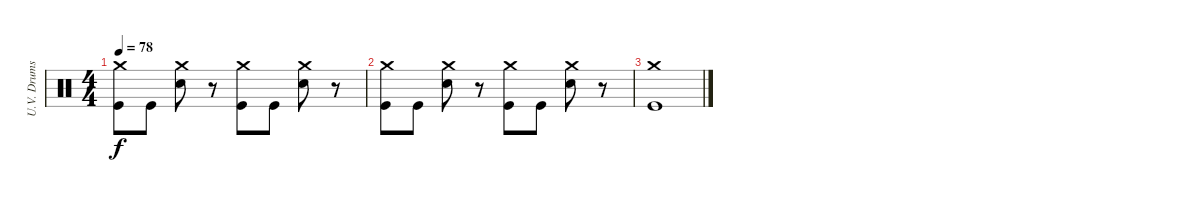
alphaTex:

\track ("U.V. Drums" "U.V. Drums") {instrument percussion}
\staff {score}
\articulation defaults
\ts (4 4)
\tempo 78
\clef neutral
\ks c
("Crash medium (hit)" "Kick (hit)").8{dy f} "Kick (hit)".8 ("Crash medium (hit)" "Electric Snare (hit)").8 r.8 ("Crash medium (hit)" "Kick (hit)").8 "Kick (hit)".8 ("Crash medium (hit)" "Electric Snare (hit)").8 r.8 |
("Crash medium (hit)" "Kick (hit)").8 "Kick (hit)".8 ("Crash medium (hit)" "Electric Snare (hit)").8 r.8 ("Crash medium (hit)" "Kick (hit)").8 "Kick (hit)".8 ("Crash medium (hit)" "Electric Snare (hit)").8 r.8 |
("Crash medium (hit)" "Kick (hit)").1
